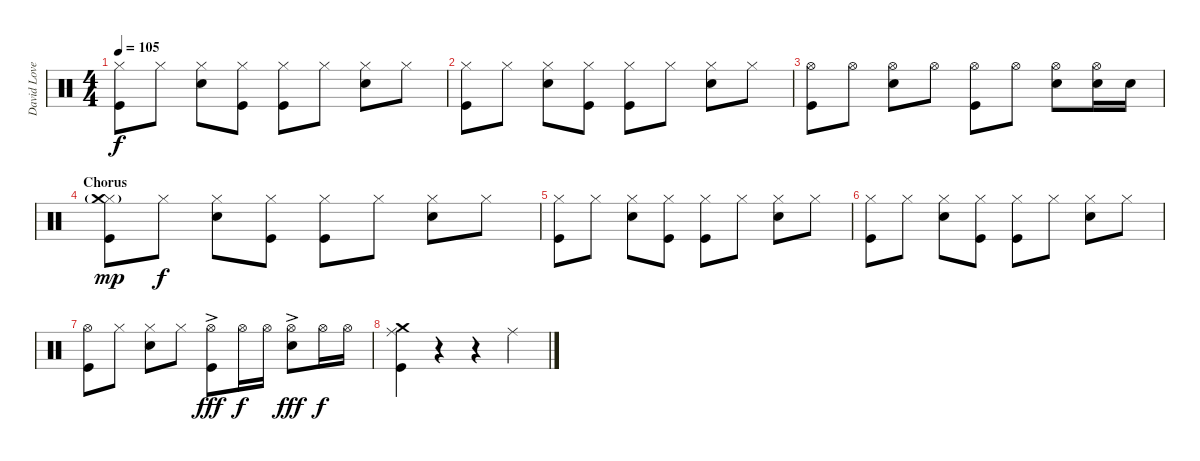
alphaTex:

\track ("David Lovering" "David Love") {instrument percussion}
\staff {score}
\articulation defaults
\ts (4 4)
\tempo 105
\clef neutral
\ks c
("Hi-Hat (closed)" "Kick (hit)").8{dy f} "Hi-Hat (closed)".8 ("Hi-Hat (closed)" "Snare (hit) 2").8 ("Hi-Hat (closed)" "Kick (hit)").8 ("Hi-Hat (closed)" "Kick (hit)").8 "Hi-Hat (closed)".8 ("Hi-Hat (closed)" "Snare (hit) 2").8 "Hi-Hat (closed)".8 |
("Hi-Hat (closed)" "Kick (hit)").8 "Hi-Hat (closed)".8 ("Hi-Hat (closed)" "Snare (hit) 2").8 ("Hi-Hat (closed)" "Kick (hit)").8 ("Hi-Hat (closed)" "Kick (hit)").8 "Hi-Hat (closed)".8 ("Hi-Hat (closed)" "Snare (hit) 2").8 "Hi-Hat (closed)".8 |
("Hi-Hat (open)" "Kick (hit)").8 "Hi-Hat (open)".8 ("Hi-Hat (open)" "Snare (hit) 2").8 "Hi-Hat (open)".8 ("Hi-Hat (open)" "Kick (hit)").8 "Hi-Hat (open)".8 ("Hi-Hat (open)" "Snare (hit) 2").8 ("Hi-Hat (open)" "Snare (hit) 2").16 "Snare (hit) 2".16 |
\section ("" "Chorus")
("Hi-Hat (closed)" "Crash medium (hit)"{g} "Kick (hit)").8{dy mp} "Hi-Hat (closed)".8{dy f} ("Hi-Hat (closed)" "Snare (hit) 2").8 ("Hi-Hat (closed)" "Kick (hit)").8 ("Hi-Hat (closed)" "Kick (hit)").8 "Hi-Hat (closed)".8 ("Hi-Hat (closed)" "Snare (hit) 2").8 "Hi-Hat (closed)".8 |
("Hi-Hat (closed)" "Kick (hit)").8 "Hi-Hat (closed)".8 ("Hi-Hat (closed)" "Snare (hit) 2").8 ("Hi-Hat (closed)" "Kick (hit)").8 ("Hi-Hat (closed)" "Kick (hit)").8 "Hi-Hat (closed)".8 ("Hi-Hat (closed)" "Snare (hit) 2").8 "Hi-Hat (closed)".8 |
("Hi-Hat (closed)" "Kick (hit)").8 "Hi-Hat (closed)".8 ("Hi-Hat (closed)" "Snare (hit) 2").8 ("Hi-Hat (closed)" "Kick (hit)").8 ("Hi-Hat (closed)" "Kick (hit)").8 "Hi-Hat (closed)".8 ("Hi-Hat (closed)" "Snare (hit) 2").8 "Hi-Hat (closed)".8 |
("Hi-Hat (open)" "Kick (hit)").8 "Hi-Hat (closed)".8 ("Hi-Hat (closed)" "Snare (hit) 2").8 "Hi-Hat (closed)".8 ("Hi-Hat (open)" "Kick (hit)"{ac}).8{dy fff} "Hi-Hat (open)".16{dy f} "Hi-Hat (open)".16 ("Hi-Hat (open)" "Snare (hit) 2"{ac}).8{dy fff} "Hi-Hat (open)".16{dy f} "Hi-Hat (open)".16 |
("Ride (middle)" "Crash medium (hit)" "Kick (hit)").4 r.4 r.4 "Ride (middle)".4
